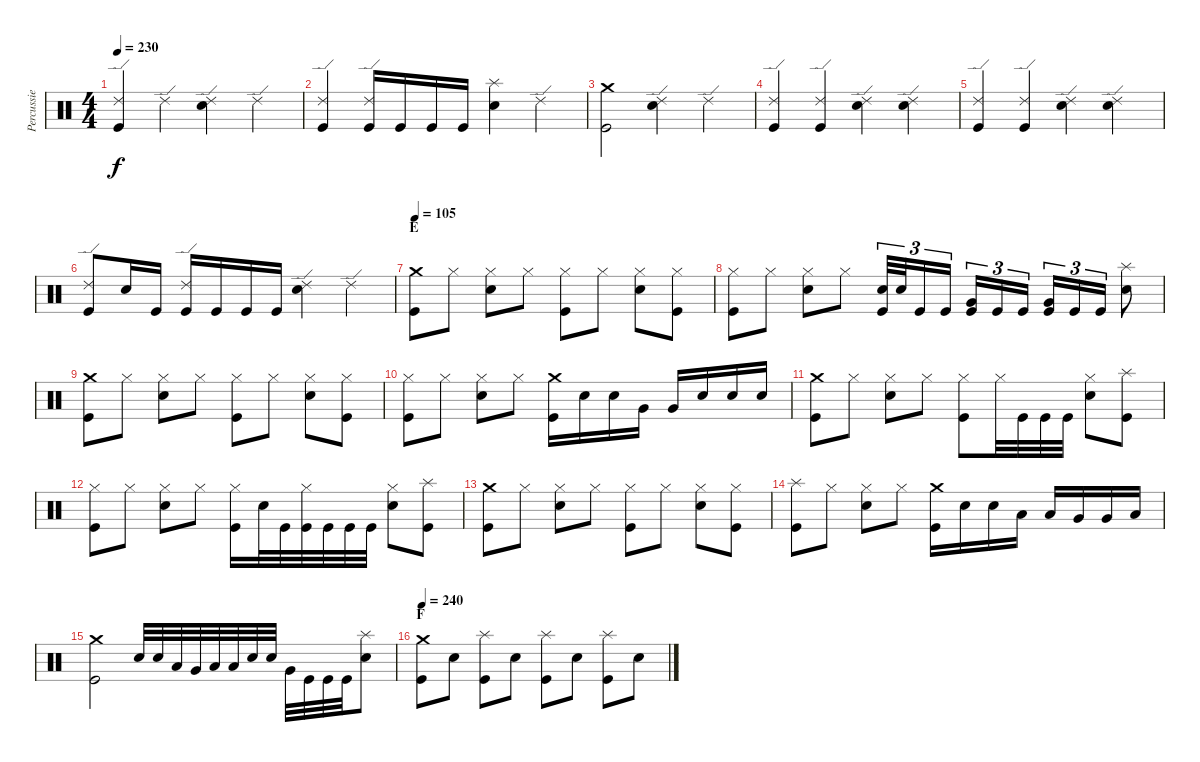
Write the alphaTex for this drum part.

\track ("Percussie" "Percussie") {instrument percussion}
\staff {score}
\articulation defaults
\ts (4 4)
\tempo 230
\clef neutral
\ks c
("Ride (edge) 2" "Kick (hit)").4{dy f} "Ride (edge) 2".4 ("Ride (edge) 2" "Electric Snare (hit)").4 "Ride (edge) 2".4 |
("Ride (edge) 2" "Kick (hit)").4 ("Ride (edge) 2" "Kick (hit)").16 "Kick (hit)".16 "Kick (hit)".16 "Kick (hit)".16 ("Splash (hit)" "Electric Snare (hit)").4 "Ride (edge) 2".4 |
("Crash medium (hit)" "Kick (hit)").2 ("Ride (edge) 2" "Electric Snare (hit)").4 "Ride (edge) 2".4 |
("Ride (edge) 2" "Kick (hit)").4 ("Ride (edge) 2" "Kick (hit)").4 ("Ride (edge) 2" "Electric Snare (hit)").4 ("Ride (edge) 2" "Electric Snare (hit)").4 |
("Ride (edge) 2" "Kick (hit)").4 ("Ride (edge) 2" "Kick (hit)").4 ("Ride (edge) 2" "Electric Snare (hit)").4 ("Ride (edge) 2" "Electric Snare (hit)").4 |
("Ride (edge) 2" "Kick (hit)").8 "Electric Snare (hit)".16 "Kick (hit)".16 ("Ride (edge) 2" "Kick (hit)").16 "Kick (hit)".16 "Kick (hit)".16 "Kick (hit)".16 ("Ride (edge) 2" "Electric Snare (hit)").4 "Ride (edge) 2".4 |
\section ("" "E")
\tempo 105
("Crash medium (hit)" "Kick (hit)").8 "Hi-Hat (closed)".8 ("Hi-Hat (closed)" "Electric Snare (hit)").8 "Hi-Hat (closed)".8 ("Hi-Hat (closed)" "Kick (hit)").8 "Hi-Hat (closed)".8 ("Hi-Hat (closed)" "Electric Snare (hit)").8 ("Hi-Hat (closed)" "Kick (hit)").8 |
("Hi-Hat (closed)" "Kick (hit)").8 "Hi-Hat (closed)".8 ("Hi-Hat (closed)" "Electric Snare (hit)").8 "Hi-Hat (closed)".8 ("Electric Snare (hit)" "Kick (hit)").32{tu (3 2)} "Electric Snare (hit)".32{tu (3 2)} "Kick (hit)".16{tu (3 2)} "Kick (hit)".16{tu (3 2)} ("Very Low Tom (hit)" "Kick (hit)").16{tu (3 2)} "Kick (hit)".16{tu (3 2)} "Kick (hit)".16{tu (3 2)} ("Very Low Tom (hit)" "Kick (hit)").16{tu (3 2)} "Kick (hit)".16{tu (3 2)} "Kick (hit)".16{tu (3 2)} ("Splash (hit)" "Electric Snare (hit)").8 |
("Crash medium (hit)" "Kick (hit)").8 "Hi-Hat (closed)".8 ("Hi-Hat (closed)" "Electric Snare (hit)").8 "Hi-Hat (closed)".8 ("Hi-Hat (closed)" "Kick (hit)").8 "Hi-Hat (closed)".8 ("Hi-Hat (closed)" "Electric Snare (hit)").8 ("Hi-Hat (closed)" "Kick (hit)").8 |
("Hi-Hat (closed)" "Kick (hit)").8 "Hi-Hat (closed)".8 ("Hi-Hat (closed)" "Electric Snare (hit)").8 "Hi-Hat (closed)".8 ("Crash medium (hit)" "Kick (hit)").16 "Electric Snare (hit)".16 "Electric Snare (hit)".16 "Very Low Tom (hit)".16 "Very Low Tom (hit)".16 "Electric Snare (hit)".16 "Electric Snare (hit)".16 "Electric Snare (hit)".16 |
("Crash medium (hit)" "Kick (hit)").8 "Hi-Hat (closed)".8 ("Hi-Hat (closed)" "Electric Snare (hit)").8 "Hi-Hat (closed)".8 ("Hi-Hat (closed)" "Kick (hit)").8 "Hi-Hat (closed)".32 "Kick (hit)".32 "Kick (hit)".32 "Kick (hit)".32 ("Hi-Hat (closed)" "Electric Snare (hit)").8 ("Splash (hit)" "Kick (hit)").8 |
("Hi-Hat (closed)" "Kick (hit)").8 "Hi-Hat (closed)".8 ("Hi-Hat (closed)" "Electric Snare (hit)").8 "Hi-Hat (closed)".8 ("Hi-Hat (closed)" "Kick (hit)").16 "Electric Snare (hit)".32 "Kick (hit)".32 ("Hi-Hat (closed)" "Kick (hit)").32 "Kick (hit)".32 "Kick (hit)".32 "Kick (hit)".32 ("Hi-Hat (closed)" "Electric Snare (hit)").8 ("Splash (hit)" "Kick (hit)").8 |
("Crash medium (hit)" "Kick (hit)").8 "Hi-Hat (closed)".8 ("Hi-Hat (closed)" "Electric Snare (hit)").8 "Hi-Hat (closed)".8 ("Hi-Hat (closed)" "Kick (hit)").8 "Hi-Hat (closed)".8 ("Hi-Hat (closed)" "Electric Snare (hit)").8 ("Hi-Hat (closed)" "Kick (hit)").8 |
("Splash (hit)" "Kick (hit)").8 "Hi-Hat (closed)".8 ("Hi-Hat (closed)" "Electric Snare (hit)").8 "Hi-Hat (closed)".8 ("Crash medium (hit)" "Kick (hit)").16 "Electric Snare (hit)".16 "Electric Snare (hit)".16 "Low Tom (hit)".16 "Low Tom (hit)".16 "Very Low Tom (hit)".16 "Very Low Tom (hit)".16 "Low Floor Tom (hit)".16 |
("Crash medium (hit)" "Kick (hit)").2 "Electric Snare (hit)".32 "Electric Snare (hit)".32 "Low Tom (hit)".32 "Very Low Tom (hit)".32 "Low Floor Tom (hit)".32 "Low Floor Tom (hit)".32 "Electric Snare (hit)".32 "Electric Snare (hit)".32 "Very Low Tom (hit)".32 "Kick (hit)".32 "Kick (hit)".32 "Kick (hit)".32 ("Splash (hit)" "Electric Snare (hit)").8 |
\section ("" "F")
\tempo 240
("Crash medium (hit)" "Kick (hit)").8 "Electric Snare (hit)".8 ("Splash (hit)" "Kick (hit)").8 "Electric Snare (hit)".8 ("Splash (hit)" "Kick (hit)").8 "Electric Snare (hit)".8 ("Splash (hit)" "Kick (hit)").8 "Electric Snare (hit)".8
